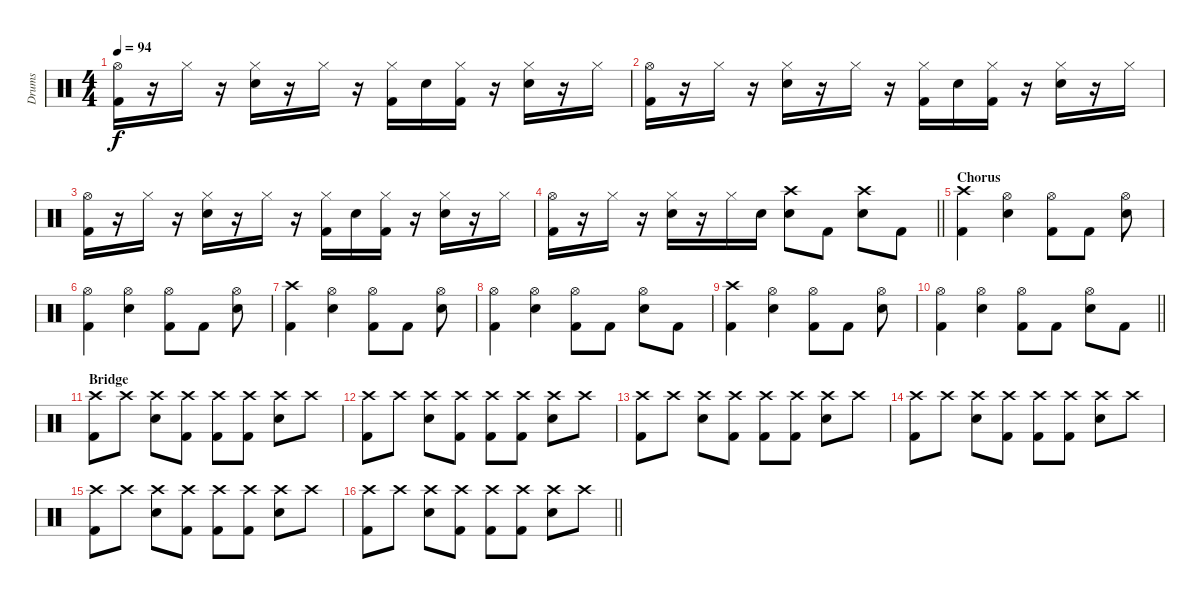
\track ("Drums" "Drums") {instrument percussion}
\staff {score}
\articulation defaults
\ts (4 4)
\tempo 94
\clef neutral
\ks c
("Kick (hit) 2" "Hi-Hat (open)").16{dy f} r.16 "Hi-Hat (closed)".16 r.16 ("Snare (hit) 2" "Hi-Hat (closed)").16 r.16 "Hi-Hat (closed)".16 r.16 ("Kick (hit) 2" "Hi-Hat (closed)").16 "Snare (hit) 2".16 ("Kick (hit) 2" "Hi-Hat (closed)").16 r.16 ("Snare (hit) 2" "Hi-Hat (closed)").16 r.16 "Hi-Hat (closed)".16 |
("Kick (hit) 2" "Hi-Hat (open)").16 r.16 "Hi-Hat (closed)".16 r.16 ("Snare (hit) 2" "Hi-Hat (closed)").16 r.16 "Hi-Hat (closed)".16 r.16 ("Kick (hit) 2" "Hi-Hat (closed)").16 "Snare (hit) 2".16 ("Kick (hit) 2" "Hi-Hat (closed)").16 r.16 ("Snare (hit) 2" "Hi-Hat (closed)").16 r.16 "Hi-Hat (closed)".16 |
("Kick (hit) 2" "Hi-Hat (open)").16 r.16 "Hi-Hat (closed)".16 r.16 ("Snare (hit) 2" "Hi-Hat (closed)").16 r.16 "Hi-Hat (closed)".16 r.16 ("Kick (hit) 2" "Hi-Hat (closed)").16 "Snare (hit) 2".16 ("Kick (hit) 2" "Hi-Hat (closed)").16 r.16 ("Snare (hit) 2" "Hi-Hat (closed)").16 r.16 "Hi-Hat (closed)".16 |
\barLineRight lightlight
("Kick (hit) 2" "Hi-Hat (open)").16 r.16 "Hi-Hat (closed)".16 r.16 ("Snare (hit) 2" "Hi-Hat (closed)").16 r.16 "Hi-Hat (closed)".16 "Snare (hit)".16 ("Snare (hit) 2" "Crash high (hit)").8 "Kick (hit) 2".8 ("Snare (hit) 2" "Crash high (hit)").8 "Kick (hit) 2".8 |
\section ("" "Chorus")
("Kick (hit) 2" "Crash high (hit)").4 ("Snare (hit) 2" "Hi-Hat (open)").4 ("Kick (hit) 2" "Hi-Hat (open)").8 "Kick (hit) 2".8 ("Snare (hit) 2" "Hi-Hat (open)").8 |
("Kick (hit) 2" "Hi-Hat (open)").4 ("Snare (hit) 2" "Hi-Hat (open)").4 ("Kick (hit) 2" "Hi-Hat (open)").8 "Kick (hit) 2".8 ("Snare (hit) 2" "Hi-Hat (open)").8 |
("Kick (hit) 2" "Crash high (hit)").4 ("Snare (hit) 2" "Hi-Hat (open)").4 ("Kick (hit) 2" "Hi-Hat (open)").8 "Kick (hit) 2".8 ("Snare (hit) 2" "Hi-Hat (open)").8 |
("Kick (hit) 2" "Hi-Hat (open)").4 ("Snare (hit) 2" "Hi-Hat (open)").4 ("Kick (hit) 2" "Hi-Hat (open)").8 "Kick (hit) 2".8 ("Snare (hit) 2" "Hi-Hat (open)").8 "Kick (hit) 2".8 |
("Kick (hit) 2" "Crash high (hit)").4 ("Snare (hit) 2" "Hi-Hat (open)").4 ("Kick (hit) 2" "Hi-Hat (open)").8 "Kick (hit) 2".8 ("Snare (hit) 2" "Hi-Hat (open)").8 |
\barLineRight lightlight
("Kick (hit) 2" "Hi-Hat (open)").4 ("Snare (hit) 2" "Hi-Hat (open)").4 ("Kick (hit) 2" "Hi-Hat (open)").8 "Kick (hit) 2".8 ("Snare (hit) 2" "Hi-Hat (open)").8 "Kick (hit) 2".8 |
\section ("" "Bridge")
("Kick (hit) 2" "Crash high (hit)").8 "Crash high (hit)".8 ("Snare (hit) 2" "Crash high (hit)").8 ("Kick (hit) 2" "Crash high (hit)").8 ("Kick (hit) 2" "Crash high (hit)").8 ("Kick (hit) 2" "Crash high (hit)").8 ("Snare (hit) 2" "Crash high (hit)").8 "Crash high (hit)".8 |
("Kick (hit) 2" "Crash high (hit)").8 "Crash high (hit)".8 ("Snare (hit) 2" "Crash high (hit)").8 ("Kick (hit) 2" "Crash high (hit)").8 ("Kick (hit) 2" "Crash high (hit)").8 ("Kick (hit) 2" "Crash high (hit)").8 ("Snare (hit) 2" "Crash high (hit)").8 "Crash high (hit)".8 |
("Kick (hit) 2" "Crash high (hit)").8 "Crash high (hit)".8 ("Snare (hit) 2" "Crash high (hit)").8 ("Kick (hit) 2" "Crash high (hit)").8 ("Kick (hit) 2" "Crash high (hit)").8 ("Kick (hit) 2" "Crash high (hit)").8 ("Snare (hit) 2" "Crash high (hit)").8 "Crash high (hit)".8 |
("Kick (hit) 2" "Crash high (hit)").8 "Crash high (hit)".8 ("Snare (hit) 2" "Crash high (hit)").8 ("Kick (hit) 2" "Crash high (hit)").8 ("Kick (hit) 2" "Crash high (hit)").8 ("Kick (hit) 2" "Crash high (hit)").8 ("Snare (hit) 2" "Crash high (hit)").8 "Crash high (hit)".8 |
("Kick (hit) 2" "Crash high (hit)").8 "Crash high (hit)".8 ("Snare (hit) 2" "Crash high (hit)").8 ("Kick (hit) 2" "Crash high (hit)").8 ("Kick (hit) 2" "Crash high (hit)").8 ("Kick (hit) 2" "Crash high (hit)").8 ("Snare (hit) 2" "Crash high (hit)").8 "Crash high (hit)".8 |
\barLineRight lightlight
("Kick (hit) 2" "Crash high (hit)").8 "Crash high (hit)".8 ("Snare (hit) 2" "Crash high (hit)").8 ("Kick (hit) 2" "Crash high (hit)").8 ("Kick (hit) 2" "Crash high (hit)").8 ("Kick (hit) 2" "Crash high (hit)").8 ("Snare (hit) 2" "Crash high (hit)").8 "Crash high (hit)".8
